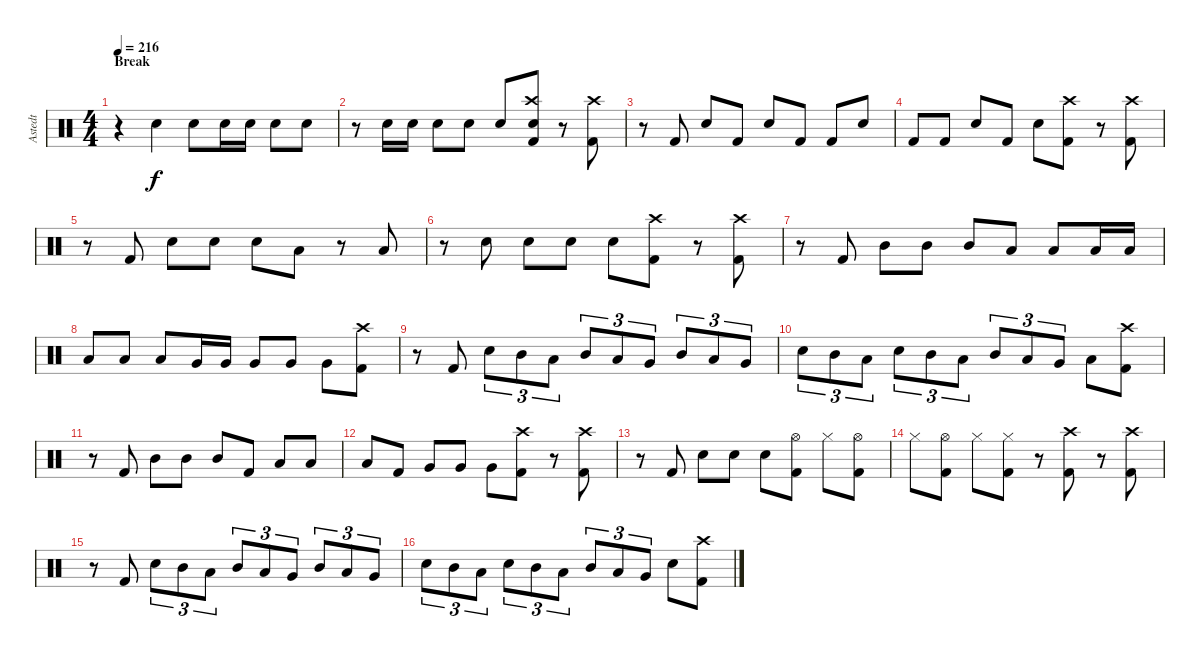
\track ("Astedt" "Astedt") {instrument percussion}
\staff {score}
\articulation defaults
\ts (4 4)
\section ("" "Break")
\tempo 216
\clef neutral
\ks c
r.4{dy f} "Snare (hit) 2".4 "Snare (hit) 2".8 "Snare (hit) 2".16 "Snare (hit) 2".16 "Snare (hit) 2".8 "Snare (hit) 2".8 |
r.8 "Snare (hit) 2".16 "Snare (hit) 2".16 "Snare (hit) 2".8 "Snare (hit) 2".8 "Snare (hit) 2".8 ("Crash high (hit)" "Snare (hit) 2" "Kick (hit) 2").8 r.8 ("Crash high (hit)" "Kick (hit) 2").8 |
r.8 "Kick (hit) 2".8 "Snare (hit) 2".8 "Kick (hit) 2".8 "Snare (hit) 2".8 "Kick (hit) 2".8 "Kick (hit) 2".8 "Snare (hit) 2".8 |
"Kick (hit) 2".8 "Kick (hit) 2".8 "Snare (hit) 2".8 "Kick (hit) 2".8 "Snare (hit) 2".8 ("Crash high (hit)" "Kick (hit) 2").8 r.8 ("Crash high (hit)" "Kick (hit) 2").8 |
r.8 "Kick (hit) 2".8 "Snare (hit) 2".8 "Snare (hit) 2".8 "Snare (hit) 2".8 "Low Tom (hit)".8 r.8 "Low Tom (hit)".8 |
r.8 "Snare (hit) 2".8 "Snare (hit) 2".8 "Snare (hit) 2".8 "Snare (hit) 2".8 ("Crash high (hit)" "Kick (hit) 2").8 r.8 ("Crash high (hit)" "Kick (hit) 2").8 |
r.8 "Kick (hit) 2".8 "Mid Tom (hit)".8 "Mid Tom (hit)".8 "Mid Tom (hit)".8 "Low Tom (hit)".8 "Low Tom (hit)".8 "Low Tom (hit)".16 "Low Tom (hit)".16 |
"Low Tom (hit)".8 "Low Tom (hit)".8 "Low Tom (hit)".8 "Very Low Tom (hit)".16 "Very Low Tom (hit)".16 "Very Low Tom (hit)".8 "Very Low Tom (hit)".8 "Very Low Tom (hit)".8 ("Crash high (hit)" "Kick (hit) 2").8 |
r.8 "Kick (hit) 2".8 "Snare (hit) 2".8{tu (3 2)} "Mid Tom (hit)".8{tu (3 2)} "Low Tom (hit)".8{tu (3 2)} "Mid Tom (hit)".8{tu (3 2)} "Low Tom (hit)".8{tu (3 2)} "Very Low Tom (hit)".8{tu (3 2)} "Mid Tom (hit)".8{tu (3 2)} "Low Tom (hit)".8{tu (3 2)} "Very Low Tom (hit)".8{tu (3 2)} |
"Snare (hit) 2".8{tu (3 2)} "Mid Tom (hit)".8{tu (3 2)} "Low Tom (hit)".8{tu (3 2)} "Snare (hit) 2".8{tu (3 2)} "Mid Tom (hit)".8{tu (3 2)} "Low Tom (hit)".8{tu (3 2)} "Mid Tom (hit)".8{tu (3 2)} "Low Tom (hit)".8{tu (3 2)} "Very Low Tom (hit)".8{tu (3 2)} "Low Tom (hit)".8 ("Crash high (hit)" "Kick (hit) 2").8 |
r.8 "Kick (hit) 2".8 "Mid Tom (hit)".8 "Mid Tom (hit)".8 "Mid Tom (hit)".8 "Kick (hit) 2".8 "Low Tom (hit)".8 "Low Tom (hit)".8 |
"Low Tom (hit)".8 "Kick (hit) 2".8 "Very Low Tom (hit)".8 "Very Low Tom (hit)".8 "Very Low Tom (hit)".8 ("Crash high (hit)" "Kick (hit) 2").8 r.8 ("Crash high (hit)" "Kick (hit) 2").8 |
r.8 "Kick (hit) 2".8 "Snare (hit) 2".8 "Snare (hit) 2".8 "Snare (hit) 2".8 ("Hi-Hat (open)" "Kick (hit) 2").8 "Hi-Hat (closed)".8 ("Hi-Hat (open)" "Kick (hit) 2").8 |
"Hi-Hat (closed)".8 ("Hi-Hat (open)" "Kick (hit) 2").8 "Hi-Hat (closed)".8 ("Hi-Hat (closed)" "Kick (hit) 2").8 r.8 ("Crash high (hit)" "Kick (hit) 2").8 r.8 ("Crash high (hit)" "Kick (hit) 2").8 |
r.8 "Kick (hit) 2".8 "Snare (hit) 2".8{tu (3 2)} "Mid Tom (hit)".8{tu (3 2)} "Low Tom (hit)".8{tu (3 2)} "Mid Tom (hit)".8{tu (3 2)} "Low Tom (hit)".8{tu (3 2)} "Very Low Tom (hit)".8{tu (3 2)} "Mid Tom (hit)".8{tu (3 2)} "Low Tom (hit)".8{tu (3 2)} "Very Low Tom (hit)".8{tu (3 2)} |
"Snare (hit) 2".8{tu (3 2)} "Mid Tom (hit)".8{tu (3 2)} "Low Tom (hit)".8{tu (3 2)} "Snare (hit) 2".8{tu (3 2)} "Mid Tom (hit)".8{tu (3 2)} "Low Tom (hit)".8{tu (3 2)} "Mid Tom (hit)".8{tu (3 2)} "Low Tom (hit)".8{tu (3 2)} "Very Low Tom (hit)".8{tu (3 2)} "Snare (hit) 2".8 ("Crash high (hit)" "Kick (hit) 2").8
